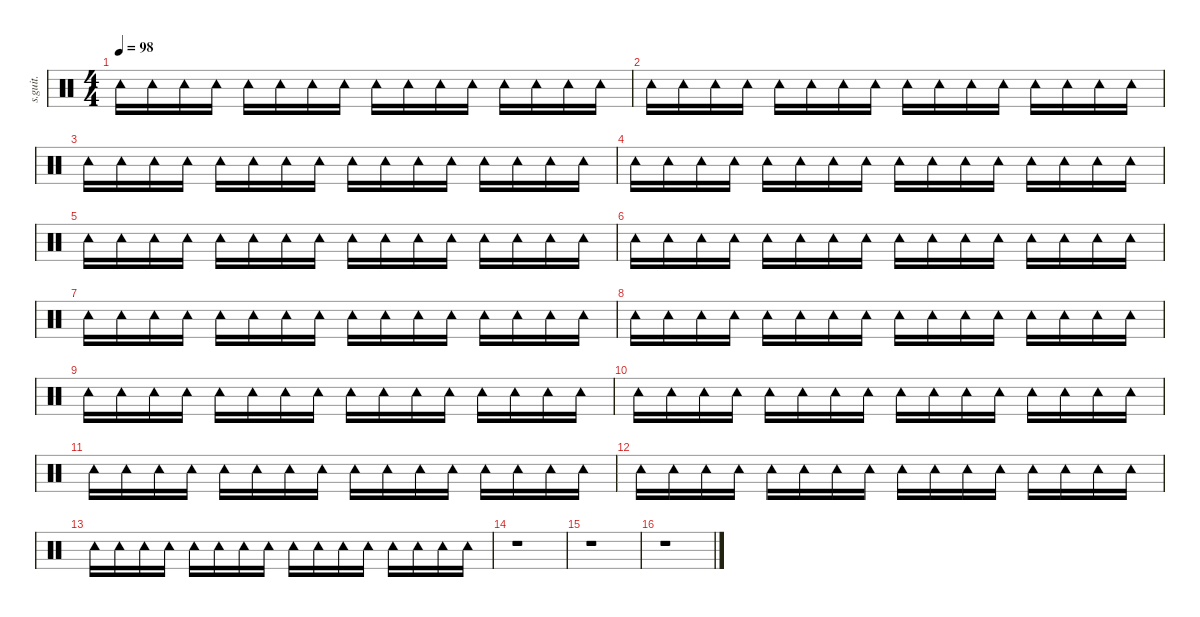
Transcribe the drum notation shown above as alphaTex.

\defaultSystemsLayout 4
\hideDynamics
\bracketExtendMode nobrackets
\track ("Additional Percussion" "s.guit.") {instrument percussion}
\staff {score}
\articulation defaults
\ts (4 4)
\tempo 98
\clef neutral
\ks c "Tambourine (hit)".16{dy ff} "Tambourine (hit)".16 "Tambourine (hit)".16 "Tambourine (hit)".16 "Tambourine (hit)".16 "Tambourine (hit)".16 "Tambourine (hit)".16 "Tambourine (hit)".16 "Tambourine (hit)".16 "Tambourine (hit)".16 "Tambourine (hit)".16 "Tambourine (hit)".16 "Tambourine (hit)".16 "Tambourine (hit)".16 "Tambourine (hit)".16 "Tambourine (hit)".16
|
"Tambourine (hit)".16 "Tambourine (hit)".16 "Tambourine (hit)".16 "Tambourine (hit)".16 "Tambourine (hit)".16 "Tambourine (hit)".16 "Tambourine (hit)".16 "Tambourine (hit)".16 "Tambourine (hit)".16 "Tambourine (hit)".16 "Tambourine (hit)".16 "Tambourine (hit)".16 "Tambourine (hit)".16 "Tambourine (hit)".16 "Tambourine (hit)".16 "Tambourine (hit)".16 |
"Tambourine (hit)".16 "Tambourine (hit)".16 "Tambourine (hit)".16 "Tambourine (hit)".16 "Tambourine (hit)".16 "Tambourine (hit)".16 "Tambourine (hit)".16 "Tambourine (hit)".16 "Tambourine (hit)".16 "Tambourine (hit)".16 "Tambourine (hit)".16 "Tambourine (hit)".16 "Tambourine (hit)".16 "Tambourine (hit)".16 "Tambourine (hit)".16 "Tambourine (hit)".16 |
"Tambourine (hit)".16 "Tambourine (hit)".16 "Tambourine (hit)".16 "Tambourine (hit)".16 "Tambourine (hit)".16 "Tambourine (hit)".16 "Tambourine (hit)".16 "Tambourine (hit)".16 "Tambourine (hit)".16 "Tambourine (hit)".16 "Tambourine (hit)".16 "Tambourine (hit)".16 "Tambourine (hit)".16 "Tambourine (hit)".16 "Tambourine (hit)".16 "Tambourine (hit)".16 |
"Tambourine (hit)".16 "Tambourine (hit)".16 "Tambourine (hit)".16 "Tambourine (hit)".16 "Tambourine (hit)".16 "Tambourine (hit)".16 "Tambourine (hit)".16 "Tambourine (hit)".16 "Tambourine (hit)".16 "Tambourine (hit)".16 "Tambourine (hit)".16 "Tambourine (hit)".16 "Tambourine (hit)".16 "Tambourine (hit)".16 "Tambourine (hit)".16 "Tambourine (hit)".16 |
"Tambourine (hit)".16 "Tambourine (hit)".16 "Tambourine (hit)".16 "Tambourine (hit)".16 "Tambourine (hit)".16 "Tambourine (hit)".16 "Tambourine (hit)".16 "Tambourine (hit)".16 "Tambourine (hit)".16 "Tambourine (hit)".16 "Tambourine (hit)".16 "Tambourine (hit)".16 "Tambourine (hit)".16 "Tambourine (hit)".16 "Tambourine (hit)".16 "Tambourine (hit)".16 |
"Tambourine (hit)".16 "Tambourine (hit)".16 "Tambourine (hit)".16 "Tambourine (hit)".16 "Tambourine (hit)".16 "Tambourine (hit)".16 "Tambourine (hit)".16 "Tambourine (hit)".16 "Tambourine (hit)".16 "Tambourine (hit)".16 "Tambourine (hit)".16 "Tambourine (hit)".16 "Tambourine (hit)".16 "Tambourine (hit)".16 "Tambourine (hit)".16 "Tambourine (hit)".16 |
"Tambourine (hit)".16 "Tambourine (hit)".16 "Tambourine (hit)".16 "Tambourine (hit)".16 "Tambourine (hit)".16 "Tambourine (hit)".16 "Tambourine (hit)".16 "Tambourine (hit)".16 "Tambourine (hit)".16 "Tambourine (hit)".16 "Tambourine (hit)".16 "Tambourine (hit)".16 "Tambourine (hit)".16 "Tambourine (hit)".16 "Tambourine (hit)".16 "Tambourine (hit)".16 |
"Tambourine (hit)".16 "Tambourine (hit)".16 "Tambourine (hit)".16 "Tambourine (hit)".16 "Tambourine (hit)".16 "Tambourine (hit)".16 "Tambourine (hit)".16 "Tambourine (hit)".16 "Tambourine (hit)".16 "Tambourine (hit)".16 "Tambourine (hit)".16 "Tambourine (hit)".16 "Tambourine (hit)".16 "Tambourine (hit)".16 "Tambourine (hit)".16 "Tambourine (hit)".16 |
"Tambourine (hit)".16 "Tambourine (hit)".16 "Tambourine (hit)".16 "Tambourine (hit)".16 "Tambourine (hit)".16 "Tambourine (hit)".16 "Tambourine (hit)".16 "Tambourine (hit)".16 "Tambourine (hit)".16 "Tambourine (hit)".16 "Tambourine (hit)".16 "Tambourine (hit)".16 "Tambourine (hit)".16 "Tambourine (hit)".16 "Tambourine (hit)".16 "Tambourine (hit)".16 |
"Tambourine (hit)".16 "Tambourine (hit)".16 "Tambourine (hit)".16 "Tambourine (hit)".16 "Tambourine (hit)".16 "Tambourine (hit)".16 "Tambourine (hit)".16 "Tambourine (hit)".16 "Tambourine (hit)".16 "Tambourine (hit)".16 "Tambourine (hit)".16 "Tambourine (hit)".16 "Tambourine (hit)".16 "Tambourine (hit)".16 "Tambourine (hit)".16 "Tambourine (hit)".16 |
"Tambourine (hit)".16 "Tambourine (hit)".16 "Tambourine (hit)".16 "Tambourine (hit)".16 "Tambourine (hit)".16 "Tambourine (hit)".16 "Tambourine (hit)".16 "Tambourine (hit)".16 "Tambourine (hit)".16 "Tambourine (hit)".16 "Tambourine (hit)".16 "Tambourine (hit)".16 "Tambourine (hit)".16 "Tambourine (hit)".16 "Tambourine (hit)".16 "Tambourine (hit)".16 |
"Tambourine (hit)".16 "Tambourine (hit)".16 "Tambourine (hit)".16 "Tambourine (hit)".16 "Tambourine (hit)".16 "Tambourine (hit)".16 "Tambourine (hit)".16 "Tambourine (hit)".16 "Tambourine (hit)".16 "Tambourine (hit)".16 "Tambourine (hit)".16 "Tambourine (hit)".16 "Tambourine (hit)".16 "Tambourine (hit)".16 "Tambourine (hit)".16 "Tambourine (hit)".16 |
r.1 |
r.1 |
r.1
